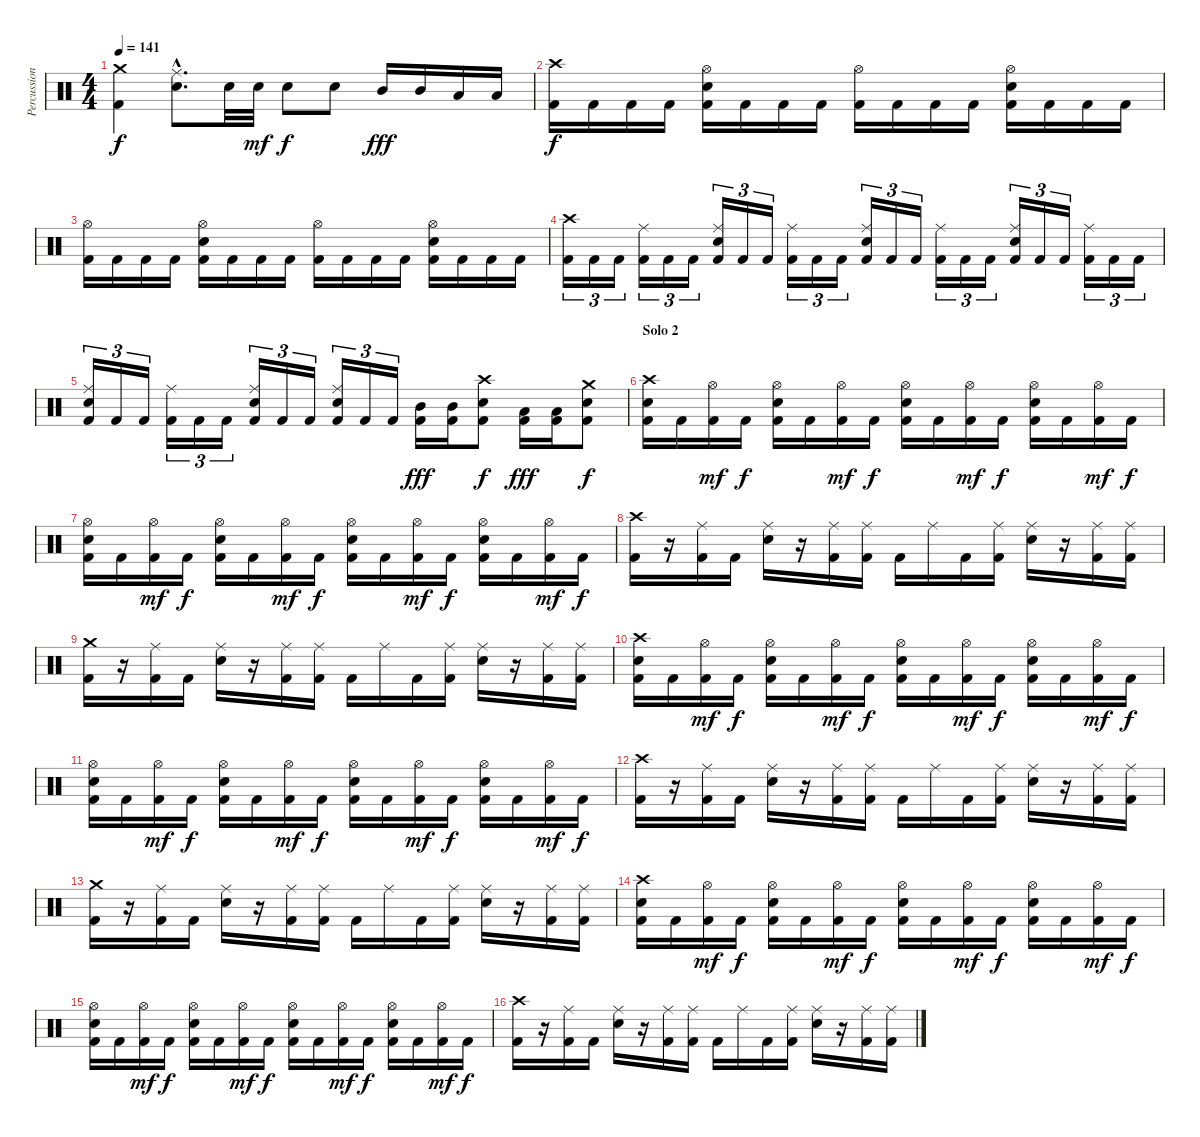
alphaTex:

\track ("Percussion" "Percussion") {instrument percussion}
\staff {score}
\articulation defaults
\ts (4 4)
\tempo 141
\clef neutral
\ks c
("Crash medium (hit)" "Kick (hit) 2").4{dy f} ("Ride (middle)"{hac} "Snare (hit) 2"{hac}).8{d} "Snare (hit) 2".32 "Snare (hit) 2".32{dy mf} "Snare (hit) 2".8{dy f} "Snare (hit) 2".8 "Mid Tom (hit)".16{dy fff} "Mid Tom (hit)".16 "Low Tom (hit)".16 "Low Tom (hit)".16 |
("Crash high (hit)" "Kick (hit) 2").16{dy f} "Kick (hit) 2".16 "Kick (hit) 2".16 "Kick (hit) 2".16 ("Hi-Hat (open)" "Snare (hit) 2" "Kick (hit) 2").16 "Kick (hit) 2".16 "Kick (hit) 2".16 "Kick (hit) 2".16 ("Hi-Hat (open)" "Kick (hit) 2").16 "Kick (hit) 2".16 "Kick (hit) 2".16 "Kick (hit) 2".16 ("Hi-Hat (open)" "Snare (hit) 2" "Kick (hit) 2").16 "Kick (hit) 2".16 "Kick (hit) 2".16 "Kick (hit) 2".16 |
("Hi-Hat (open)" "Kick (hit) 2").16 "Kick (hit) 2".16 "Kick (hit) 2".16 "Kick (hit) 2".16 ("Hi-Hat (open)" "Snare (hit) 2" "Kick (hit) 2").16 "Kick (hit) 2".16 "Kick (hit) 2".16 "Kick (hit) 2".16 ("Hi-Hat (open)" "Kick (hit) 2").16 "Kick (hit) 2".16 "Kick (hit) 2".16 "Kick (hit) 2".16 ("Hi-Hat (open)" "Snare (hit) 2" "Kick (hit) 2").16 "Kick (hit) 2".16 "Kick (hit) 2".16 "Kick (hit) 2".16 |
("Crash high (hit)" "Kick (hit) 2").16{tu (3 2)} "Kick (hit) 2".16{tu (3 2)} "Kick (hit) 2".16{tu (3 2)} ("Ride (middle)" "Kick (hit) 2").16{tu (3 2)} "Kick (hit) 2".16{tu (3 2)} "Kick (hit) 2".16{tu (3 2)} ("Ride (middle)" "Snare (hit) 2" "Kick (hit) 2").16{tu (3 2)} "Kick (hit) 2".16{tu (3 2)} "Kick (hit) 2".16{tu (3 2)} ("Ride (middle)" "Kick (hit) 2").16{tu (3 2)} "Kick (hit) 2".16{tu (3 2)} "Kick (hit) 2".16{tu (3 2)} ("Ride (middle)" "Snare (hit) 2" "Kick (hit) 2").16{tu (3 2)} "Kick (hit) 2".16{tu (3 2)} "Kick (hit) 2".16{tu (3 2)} ("Ride (middle)" "Kick (hit) 2").16{tu (3 2)} "Kick (hit) 2".16{tu (3 2)} "Kick (hit) 2".16{tu (3 2)} ("Ride (middle)" "Snare (hit) 2" "Kick (hit) 2").16{tu (3 2)} "Kick (hit) 2".16{tu (3 2)} "Kick (hit) 2".16{tu (3 2)} ("Ride (middle)" "Kick (hit) 2").16{tu (3 2)} "Kick (hit) 2".16{tu (3 2)} "Kick (hit) 2".16{tu (3 2)} |
("Ride (middle)" "Snare (hit) 2" "Kick (hit) 2").16{tu (3 2)} "Kick (hit) 2".16{tu (3 2)} "Kick (hit) 2".16{tu (3 2)} ("Ride (middle)" "Kick (hit) 2").16{tu (3 2)} "Kick (hit) 2".16{tu (3 2)} "Kick (hit) 2".16{tu (3 2)} ("Ride (middle)" "Snare (hit) 2" "Kick (hit) 2").16{tu (3 2)} "Kick (hit) 2".16{tu (3 2)} "Kick (hit) 2".16{tu (3 2)} ("Ride (middle)" "Snare (hit) 2" "Kick (hit) 2").16{tu (3 2)} "Kick (hit) 2".16{tu (3 2)} "Kick (hit) 2".16{tu (3 2)} ("Mid Tom (hit)" "Kick (hit) 2").16{dy fff} ("Mid Tom (hit)" "Kick (hit) 2").16 ("Crash high (hit)" "Snare (hit) 2" "Kick (hit) 2").8{dy f} ("Low Tom (hit)" "Kick (hit) 2").16{dy fff} ("Low Tom (hit)" "Kick (hit) 2").16 ("Crash medium (hit)" "Snare (hit) 2" "Kick (hit) 2").8{dy f} |
\section ("" "Solo 2")
("Crash high (hit)" "Snare (hit) 2" "Kick (hit) 2").16 "Kick (hit) 2".16 ("Hi-Hat (open)" "Kick (hit) 2").16{dy mf} "Kick (hit) 2".16{dy f} ("Hi-Hat (open)" "Snare (hit) 2" "Kick (hit) 2").16 "Kick (hit) 2".16 ("Hi-Hat (open)" "Kick (hit) 2").16{dy mf} "Kick (hit) 2".16{dy f} ("Hi-Hat (open)" "Snare (hit) 2" "Kick (hit) 2").16 "Kick (hit) 2".16 ("Hi-Hat (open)" "Kick (hit) 2").16{dy mf} "Kick (hit) 2".16{dy f} ("Hi-Hat (open)" "Snare (hit) 2" "Kick (hit) 2").16 "Kick (hit) 2".16 ("Hi-Hat (open)" "Kick (hit) 2").16{dy mf} "Kick (hit) 2".16{dy f} |
("Hi-Hat (open)" "Snare (hit) 2" "Kick (hit) 2").16 "Kick (hit) 2".16 ("Hi-Hat (open)" "Kick (hit) 2").16{dy mf} "Kick (hit) 2".16{dy f} ("Hi-Hat (open)" "Snare (hit) 2" "Kick (hit) 2").16 "Kick (hit) 2".16 ("Hi-Hat (open)" "Kick (hit) 2").16{dy mf} "Kick (hit) 2".16{dy f} ("Hi-Hat (open)" "Snare (hit) 2" "Kick (hit) 2").16 "Kick (hit) 2".16 ("Hi-Hat (open)" "Kick (hit) 2").16{dy mf} "Kick (hit) 2".16{dy f} ("Hi-Hat (open)" "Snare (hit) 2" "Kick (hit) 2").16 "Kick (hit) 2".16 ("Hi-Hat (open)" "Kick (hit) 2").16{dy mf} "Kick (hit) 2".16{dy f} |
("Crash high (hit)" "Kick (hit) 2").16 r.16 ("Ride (middle)" "Kick (hit) 2").16 "Kick (hit) 2".16 ("Ride (middle)" "Snare (hit) 2").16 r.16 ("Ride (middle)" "Kick (hit) 2").16 ("Ride (middle)" "Kick (hit) 2").16 "Kick (hit) 2".16 "Ride (middle)".16 "Kick (hit) 2".16 ("Ride (middle)" "Kick (hit) 2").16 ("Ride (middle)" "Snare (hit) 2").16 r.16 ("Ride (middle)" "Kick (hit) 2").16 ("Ride (middle)" "Kick (hit) 2").16 |
("Crash medium (hit)" "Kick (hit) 2").16 r.16 ("Ride (middle)" "Kick (hit) 2").16 "Kick (hit) 2".16 ("Ride (middle)" "Snare (hit) 2").16 r.16 ("Ride (middle)" "Kick (hit) 2").16 ("Ride (middle)" "Kick (hit) 2").16 "Kick (hit) 2".16 "Ride (middle)".16 "Kick (hit) 2".16 ("Ride (middle)" "Kick (hit) 2").16 ("Ride (middle)" "Snare (hit) 2").16 r.16 ("Ride (middle)" "Kick (hit) 2").16 ("Ride (middle)" "Kick (hit) 2").16 |
("Crash high (hit)" "Snare (hit) 2" "Kick (hit) 2").16 "Kick (hit) 2".16 ("Hi-Hat (open)" "Kick (hit) 2").16{dy mf} "Kick (hit) 2".16{dy f} ("Hi-Hat (open)" "Snare (hit) 2" "Kick (hit) 2").16 "Kick (hit) 2".16 ("Hi-Hat (open)" "Kick (hit) 2").16{dy mf} "Kick (hit) 2".16{dy f} ("Hi-Hat (open)" "Snare (hit) 2" "Kick (hit) 2").16 "Kick (hit) 2".16 ("Hi-Hat (open)" "Kick (hit) 2").16{dy mf} "Kick (hit) 2".16{dy f} ("Hi-Hat (open)" "Snare (hit) 2" "Kick (hit) 2").16 "Kick (hit) 2".16 ("Hi-Hat (open)" "Kick (hit) 2").16{dy mf} "Kick (hit) 2".16{dy f} |
("Hi-Hat (open)" "Snare (hit) 2" "Kick (hit) 2").16 "Kick (hit) 2".16 ("Hi-Hat (open)" "Kick (hit) 2").16{dy mf} "Kick (hit) 2".16{dy f} ("Hi-Hat (open)" "Snare (hit) 2" "Kick (hit) 2").16 "Kick (hit) 2".16 ("Hi-Hat (open)" "Kick (hit) 2").16{dy mf} "Kick (hit) 2".16{dy f} ("Hi-Hat (open)" "Snare (hit) 2" "Kick (hit) 2").16 "Kick (hit) 2".16 ("Hi-Hat (open)" "Kick (hit) 2").16{dy mf} "Kick (hit) 2".16{dy f} ("Hi-Hat (open)" "Snare (hit) 2" "Kick (hit) 2").16 "Kick (hit) 2".16 ("Hi-Hat (open)" "Kick (hit) 2").16{dy mf} "Kick (hit) 2".16{dy f} |
("Crash high (hit)" "Kick (hit) 2").16 r.16 ("Ride (middle)" "Kick (hit) 2").16 "Kick (hit) 2".16 ("Ride (middle)" "Snare (hit) 2").16 r.16 ("Ride (middle)" "Kick (hit) 2").16 ("Ride (middle)" "Kick (hit) 2").16 "Kick (hit) 2".16 "Ride (middle)".16 "Kick (hit) 2".16 ("Ride (middle)" "Kick (hit) 2").16 ("Ride (middle)" "Snare (hit) 2").16 r.16 ("Ride (middle)" "Kick (hit) 2").16 ("Ride (middle)" "Kick (hit) 2").16 |
("Crash medium (hit)" "Kick (hit) 2").16 r.16 ("Ride (middle)" "Kick (hit) 2").16 "Kick (hit) 2".16 ("Ride (middle)" "Snare (hit) 2").16 r.16 ("Ride (middle)" "Kick (hit) 2").16 ("Ride (middle)" "Kick (hit) 2").16 "Kick (hit) 2".16 "Ride (middle)".16 "Kick (hit) 2".16 ("Ride (middle)" "Kick (hit) 2").16 ("Ride (middle)" "Snare (hit) 2").16 r.16 ("Ride (middle)" "Kick (hit) 2").16 ("Ride (middle)" "Kick (hit) 2").16 |
("Crash high (hit)" "Snare (hit) 2" "Kick (hit) 2").16 "Kick (hit) 2".16 ("Hi-Hat (open)" "Kick (hit) 2").16{dy mf} "Kick (hit) 2".16{dy f} ("Hi-Hat (open)" "Snare (hit) 2" "Kick (hit) 2").16 "Kick (hit) 2".16 ("Hi-Hat (open)" "Kick (hit) 2").16{dy mf} "Kick (hit) 2".16{dy f} ("Hi-Hat (open)" "Snare (hit) 2" "Kick (hit) 2").16 "Kick (hit) 2".16 ("Hi-Hat (open)" "Kick (hit) 2").16{dy mf} "Kick (hit) 2".16{dy f} ("Hi-Hat (open)" "Snare (hit) 2" "Kick (hit) 2").16 "Kick (hit) 2".16 ("Hi-Hat (open)" "Kick (hit) 2").16{dy mf} "Kick (hit) 2".16{dy f} |
("Hi-Hat (open)" "Snare (hit) 2" "Kick (hit) 2").16 "Kick (hit) 2".16 ("Hi-Hat (open)" "Kick (hit) 2").16{dy mf} "Kick (hit) 2".16{dy f} ("Hi-Hat (open)" "Snare (hit) 2" "Kick (hit) 2").16 "Kick (hit) 2".16 ("Hi-Hat (open)" "Kick (hit) 2").16{dy mf} "Kick (hit) 2".16{dy f} ("Hi-Hat (open)" "Snare (hit) 2" "Kick (hit) 2").16 "Kick (hit) 2".16 ("Hi-Hat (open)" "Kick (hit) 2").16{dy mf} "Kick (hit) 2".16{dy f} ("Hi-Hat (open)" "Snare (hit) 2" "Kick (hit) 2").16 "Kick (hit) 2".16 ("Hi-Hat (open)" "Kick (hit) 2").16{dy mf} "Kick (hit) 2".16{dy f} |
("Crash high (hit)" "Kick (hit) 2").16 r.16 ("Ride (middle)" "Kick (hit) 2").16 "Kick (hit) 2".16 ("Ride (middle)" "Snare (hit) 2").16 r.16 ("Ride (middle)" "Kick (hit) 2").16 ("Ride (middle)" "Kick (hit) 2").16 "Kick (hit) 2".16 "Ride (middle)".16 "Kick (hit) 2".16 ("Ride (middle)" "Kick (hit) 2").16 ("Ride (middle)" "Snare (hit) 2").16 r.16 ("Ride (middle)" "Kick (hit) 2").16 ("Ride (middle)" "Kick (hit) 2").16
